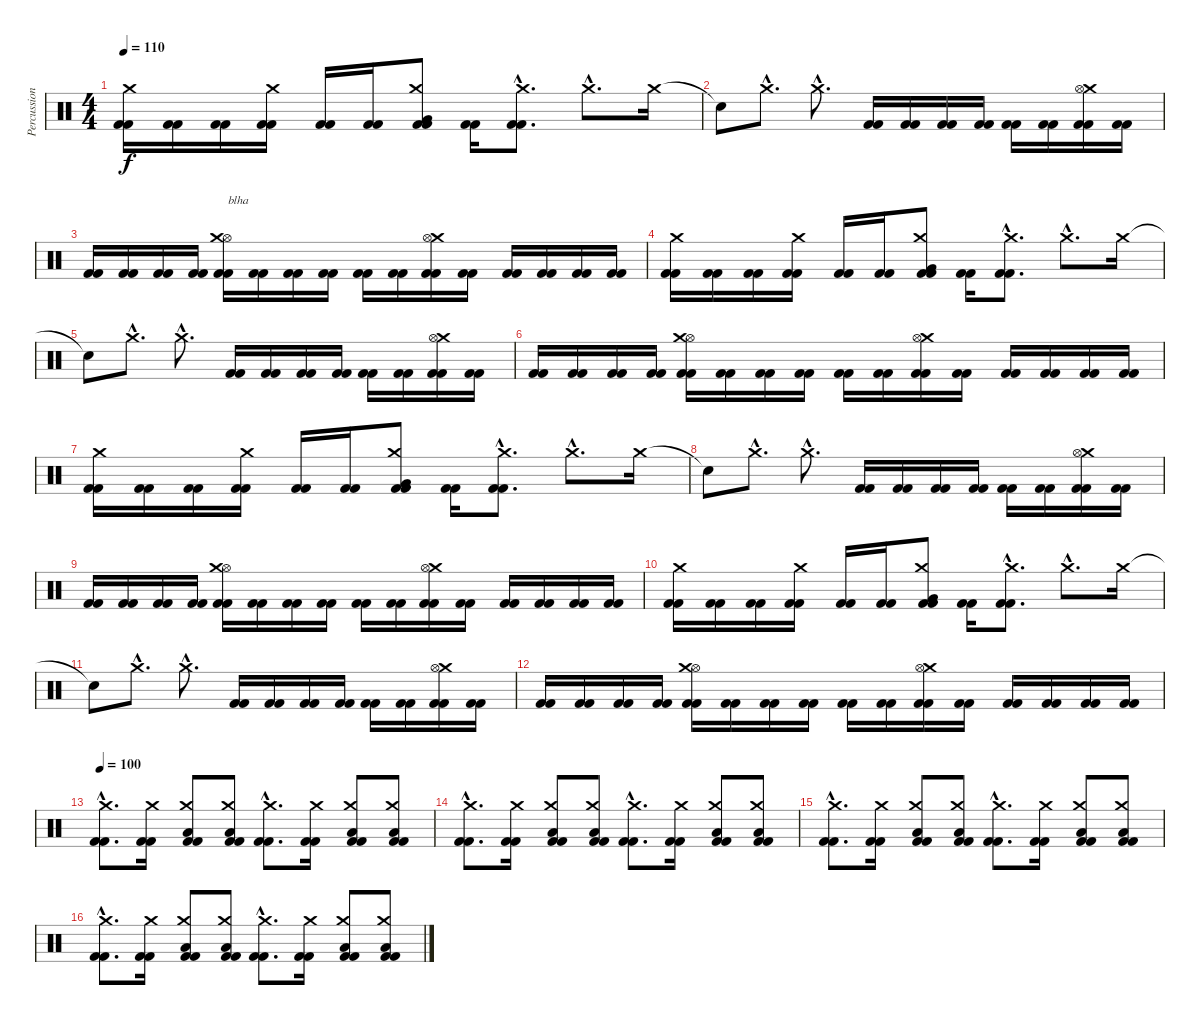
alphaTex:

\track ("Percussion" "Percussion") {instrument percussion}
\staff {score}
\articulation defaults
\ts (4 4)
\tempo 110
\clef neutral
\ks c
("Kick (hit) 2" "Kick (hit) 2" "Crash medium (hit)").16{dy f} ("Kick (hit) 2" "Kick (hit) 2").16 ("Kick (hit) 2" "Kick (hit) 2").16 ("Kick (hit) 2" "Kick (hit) 2" "Crash medium (hit)").16 ("Kick (hit) 2" "Kick (hit) 2").16 ("Kick (hit) 2" "Kick (hit) 2").16 ("Kick (hit) 2" "Kick (hit) 2" "Very Low Tom (hit)" "Crash medium (hit)").8 ("Kick (hit) 2" "Kick (hit) 2").16 ("Kick (hit) 2"{hac} "Kick (hit) 2"{hac} "Crash medium (hit)"{hac}).8{d} "Crash medium (hit)"{hac}.8{d} "Crash medium (hit)".16 |
"Snare (hit)"{t}.8 "Crash medium (hit)"{hac}.8{d} "Crash medium (hit)"{hac}.8{d} ("Kick (hit) 2" "Kick (hit) 2").16 ("Kick (hit) 2" "Kick (hit) 2").16 ("Kick (hit) 2" "Kick (hit) 2").16 ("Kick (hit) 2" "Kick (hit) 2").16 ("Kick (hit) 2" "Kick (hit) 2").16 ("Kick (hit) 2" "Kick (hit) 2").16 ("Kick (hit) 2" "Kick (hit) 2" "Crash medium (hit)" "Hi-Hat (open)").16 ("Kick (hit) 2" "Kick (hit) 2").16 |
("Kick (hit) 2" "Kick (hit) 2").16 ("Kick (hit) 2" "Kick (hit) 2").16 ("Kick (hit) 2" "Kick (hit) 2").16 ("Kick (hit) 2" "Kick (hit) 2").16 ("Kick (hit) 2" "Kick (hit) 2" "Hi-Hat (open)" "Crash medium (hit)").16{txt "blha"} ("Kick (hit) 2" "Kick (hit) 2").16 ("Kick (hit) 2" "Kick (hit) 2").16 ("Kick (hit) 2" "Kick (hit) 2").16 ("Kick (hit) 2" "Kick (hit) 2").16 ("Kick (hit) 2" "Kick (hit) 2").16 ("Kick (hit) 2" "Kick (hit) 2" "Crash medium (hit)" "Hi-Hat (open)").16 ("Kick (hit) 2" "Kick (hit) 2").16 ("Kick (hit) 2" "Kick (hit) 2").16 ("Kick (hit) 2" "Kick (hit) 2").16 ("Kick (hit) 2" "Kick (hit) 2").16 ("Kick (hit) 2" "Kick (hit) 2").16 |
("Kick (hit) 2" "Kick (hit) 2" "Crash medium (hit)").16 ("Kick (hit) 2" "Kick (hit) 2").16 ("Kick (hit) 2" "Kick (hit) 2").16 ("Kick (hit) 2" "Kick (hit) 2" "Crash medium (hit)").16 ("Kick (hit) 2" "Kick (hit) 2").16 ("Kick (hit) 2" "Kick (hit) 2").16 ("Kick (hit) 2" "Kick (hit) 2" "Very Low Tom (hit)" "Crash medium (hit)").8 ("Kick (hit) 2" "Kick (hit) 2").16 ("Kick (hit) 2"{hac} "Kick (hit) 2"{hac} "Crash medium (hit)"{hac}).8{d} "Crash medium (hit)"{hac}.8{d} "Crash medium (hit)".16 |
"Snare (hit)"{t}.8 "Crash medium (hit)"{hac}.8{d} "Crash medium (hit)"{hac}.8{d} ("Kick (hit) 2" "Kick (hit) 2").16 ("Kick (hit) 2" "Kick (hit) 2").16 ("Kick (hit) 2" "Kick (hit) 2").16 ("Kick (hit) 2" "Kick (hit) 2").16 ("Kick (hit) 2" "Kick (hit) 2").16 ("Kick (hit) 2" "Kick (hit) 2").16 ("Kick (hit) 2" "Kick (hit) 2" "Crash medium (hit)" "Hi-Hat (open)").16 ("Kick (hit) 2" "Kick (hit) 2").16 |
("Kick (hit) 2" "Kick (hit) 2").16 ("Kick (hit) 2" "Kick (hit) 2").16 ("Kick (hit) 2" "Kick (hit) 2").16 ("Kick (hit) 2" "Kick (hit) 2").16 ("Kick (hit) 2" "Kick (hit) 2" "Hi-Hat (open)" "Crash medium (hit)").16 ("Kick (hit) 2" "Kick (hit) 2").16 ("Kick (hit) 2" "Kick (hit) 2").16 ("Kick (hit) 2" "Kick (hit) 2").16 ("Kick (hit) 2" "Kick (hit) 2").16 ("Kick (hit) 2" "Kick (hit) 2").16 ("Kick (hit) 2" "Kick (hit) 2" "Crash medium (hit)" "Hi-Hat (open)").16 ("Kick (hit) 2" "Kick (hit) 2").16 ("Kick (hit) 2" "Kick (hit) 2").16 ("Kick (hit) 2" "Kick (hit) 2").16 ("Kick (hit) 2" "Kick (hit) 2").16 ("Kick (hit) 2" "Kick (hit) 2").16 |
("Kick (hit) 2" "Kick (hit) 2" "Crash medium (hit)").16 ("Kick (hit) 2" "Kick (hit) 2").16 ("Kick (hit) 2" "Kick (hit) 2").16 ("Kick (hit) 2" "Kick (hit) 2" "Crash medium (hit)").16 ("Kick (hit) 2" "Kick (hit) 2").16 ("Kick (hit) 2" "Kick (hit) 2").16 ("Kick (hit) 2" "Kick (hit) 2" "Very Low Tom (hit)" "Crash medium (hit)").8 ("Kick (hit) 2" "Kick (hit) 2").16 ("Kick (hit) 2"{hac} "Kick (hit) 2"{hac} "Crash medium (hit)"{hac}).8{d} "Crash medium (hit)"{hac}.8{d} "Crash medium (hit)".16 |
"Snare (hit)"{t}.8 "Crash medium (hit)"{hac}.8{d} "Crash medium (hit)"{hac}.8{d} ("Kick (hit) 2" "Kick (hit) 2").16 ("Kick (hit) 2" "Kick (hit) 2").16 ("Kick (hit) 2" "Kick (hit) 2").16 ("Kick (hit) 2" "Kick (hit) 2").16 ("Kick (hit) 2" "Kick (hit) 2").16 ("Kick (hit) 2" "Kick (hit) 2").16 ("Kick (hit) 2" "Kick (hit) 2" "Crash medium (hit)" "Hi-Hat (open)").16 ("Kick (hit) 2" "Kick (hit) 2").16 |
("Kick (hit) 2" "Kick (hit) 2").16 ("Kick (hit) 2" "Kick (hit) 2").16 ("Kick (hit) 2" "Kick (hit) 2").16 ("Kick (hit) 2" "Kick (hit) 2").16 ("Kick (hit) 2" "Kick (hit) 2" "Hi-Hat (open)" "Crash medium (hit)").16 ("Kick (hit) 2" "Kick (hit) 2").16 ("Kick (hit) 2" "Kick (hit) 2").16 ("Kick (hit) 2" "Kick (hit) 2").16 ("Kick (hit) 2" "Kick (hit) 2").16 ("Kick (hit) 2" "Kick (hit) 2").16 ("Kick (hit) 2" "Kick (hit) 2" "Crash medium (hit)" "Hi-Hat (open)").16 ("Kick (hit) 2" "Kick (hit) 2").16 ("Kick (hit) 2" "Kick (hit) 2").16 ("Kick (hit) 2" "Kick (hit) 2").16 ("Kick (hit) 2" "Kick (hit) 2").16 ("Kick (hit) 2" "Kick (hit) 2").16 |
("Kick (hit) 2" "Kick (hit) 2" "Crash medium (hit)").16 ("Kick (hit) 2" "Kick (hit) 2").16 ("Kick (hit) 2" "Kick (hit) 2").16 ("Kick (hit) 2" "Kick (hit) 2" "Crash medium (hit)").16 ("Kick (hit) 2" "Kick (hit) 2").16 ("Kick (hit) 2" "Kick (hit) 2").16 ("Kick (hit) 2" "Kick (hit) 2" "Very Low Tom (hit)" "Crash medium (hit)").8 ("Kick (hit) 2" "Kick (hit) 2").16 ("Kick (hit) 2"{hac} "Kick (hit) 2"{hac} "Crash medium (hit)"{hac}).8{d} "Crash medium (hit)"{hac}.8{d} "Crash medium (hit)".16 |
"Snare (hit)"{t}.8 "Crash medium (hit)"{hac}.8{d} "Crash medium (hit)"{hac}.8{d} ("Kick (hit) 2" "Kick (hit) 2").16 ("Kick (hit) 2" "Kick (hit) 2").16 ("Kick (hit) 2" "Kick (hit) 2").16 ("Kick (hit) 2" "Kick (hit) 2").16 ("Kick (hit) 2" "Kick (hit) 2").16 ("Kick (hit) 2" "Kick (hit) 2").16 ("Kick (hit) 2" "Kick (hit) 2" "Crash medium (hit)" "Hi-Hat (open)").16 ("Kick (hit) 2" "Kick (hit) 2").16 |
("Kick (hit) 2" "Kick (hit) 2").16 ("Kick (hit) 2" "Kick (hit) 2").16 ("Kick (hit) 2" "Kick (hit) 2").16 ("Kick (hit) 2" "Kick (hit) 2").16 ("Kick (hit) 2" "Kick (hit) 2" "Hi-Hat (open)" "Crash medium (hit)").16 ("Kick (hit) 2" "Kick (hit) 2").16 ("Kick (hit) 2" "Kick (hit) 2").16 ("Kick (hit) 2" "Kick (hit) 2").16 ("Kick (hit) 2" "Kick (hit) 2").16 ("Kick (hit) 2" "Kick (hit) 2").16 ("Kick (hit) 2" "Kick (hit) 2" "Crash medium (hit)" "Hi-Hat (open)").16 ("Kick (hit) 2" "Kick (hit) 2").16 ("Kick (hit) 2" "Kick (hit) 2").16 ("Kick (hit) 2" "Kick (hit) 2").16 ("Kick (hit) 2" "Kick (hit) 2").16 ("Kick (hit) 2" "Kick (hit) 2").16 |
\tempo 100
("Kick (hit) 2"{hac} "Kick (hit) 2"{hac} "Crash medium (hit)"{hac}).8{d} ("Kick (hit) 2" "Kick (hit) 2" "Crash medium (hit)").16 ("Kick (hit) 2" "Kick (hit) 2" "Low Tom (hit)" "Crash medium (hit)").8 ("Kick (hit) 2" "Kick (hit) 2" "Low Tom (hit)" "Crash medium (hit)").8 ("Kick (hit) 2"{hac} "Kick (hit) 2"{hac} "Crash medium (hit)"{hac}).8{d} ("Kick (hit) 2" "Kick (hit) 2" "Crash medium (hit)").16 ("Kick (hit) 2" "Kick (hit) 2" "Low Tom (hit)" "Crash medium (hit)").8 ("Kick (hit) 2" "Kick (hit) 2" "Low Tom (hit)" "Crash medium (hit)").8 |
("Kick (hit) 2"{hac} "Kick (hit) 2"{hac} "Crash medium (hit)"{hac}).8{d} ("Kick (hit) 2" "Kick (hit) 2" "Crash medium (hit)").16 ("Kick (hit) 2" "Kick (hit) 2" "Low Tom (hit)" "Crash medium (hit)").8 ("Kick (hit) 2" "Kick (hit) 2" "Low Tom (hit)" "Crash medium (hit)").8 ("Kick (hit) 2"{hac} "Kick (hit) 2"{hac} "Crash medium (hit)"{hac}).8{d} ("Kick (hit) 2" "Kick (hit) 2" "Crash medium (hit)").16 ("Kick (hit) 2" "Kick (hit) 2" "Low Tom (hit)" "Crash medium (hit)").8 ("Kick (hit) 2" "Kick (hit) 2" "Low Tom (hit)" "Crash medium (hit)").8 |
("Kick (hit) 2"{hac} "Kick (hit) 2"{hac} "Crash medium (hit)"{hac}).8{d} ("Kick (hit) 2" "Kick (hit) 2" "Crash medium (hit)").16 ("Kick (hit) 2" "Kick (hit) 2" "Low Tom (hit)" "Crash medium (hit)").8 ("Kick (hit) 2" "Kick (hit) 2" "Low Tom (hit)" "Crash medium (hit)").8 ("Kick (hit) 2"{hac} "Kick (hit) 2"{hac} "Crash medium (hit)"{hac}).8{d} ("Kick (hit) 2" "Kick (hit) 2" "Crash medium (hit)").16 ("Kick (hit) 2" "Kick (hit) 2" "Low Tom (hit)" "Crash medium (hit)").8 ("Kick (hit) 2" "Kick (hit) 2" "Low Tom (hit)" "Crash medium (hit)").8 |
("Kick (hit) 2"{hac} "Kick (hit) 2"{hac} "Crash medium (hit)"{hac}).8{d} ("Kick (hit) 2" "Kick (hit) 2" "Crash medium (hit)").16 ("Kick (hit) 2" "Kick (hit) 2" "Low Tom (hit)" "Crash medium (hit)").8 ("Kick (hit) 2" "Kick (hit) 2" "Low Tom (hit)" "Crash medium (hit)").8 ("Kick (hit) 2"{hac} "Kick (hit) 2"{hac} "Crash medium (hit)"{hac}).8{d} ("Kick (hit) 2" "Kick (hit) 2" "Crash medium (hit)").16 ("Kick (hit) 2" "Kick (hit) 2" "Low Tom (hit)" "Crash medium (hit)").8 ("Kick (hit) 2" "Kick (hit) 2" "Low Tom (hit)" "Crash medium (hit)").8
